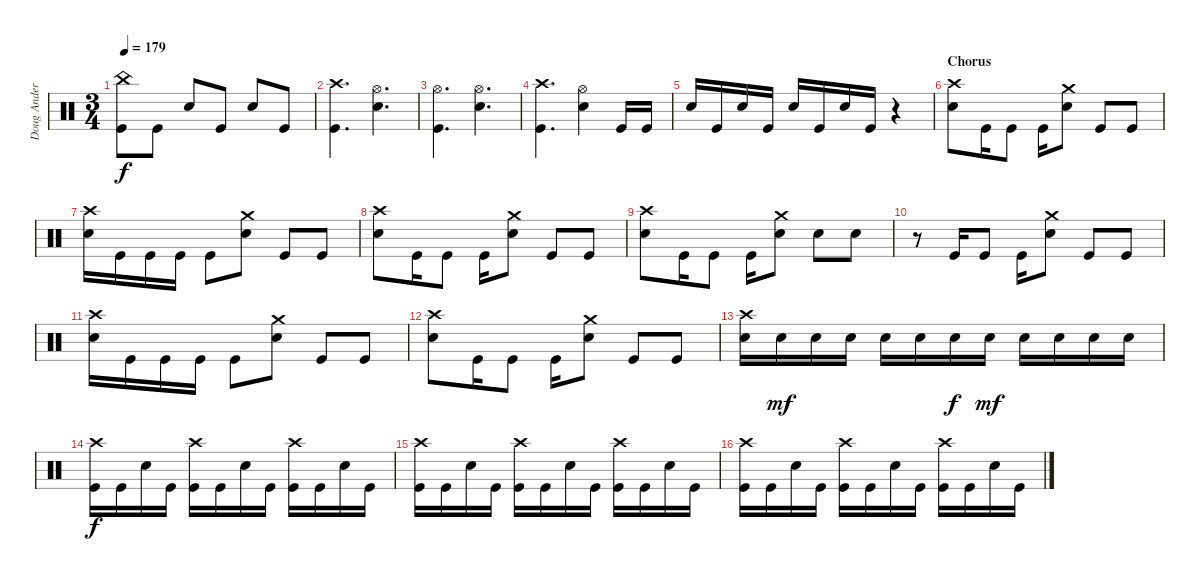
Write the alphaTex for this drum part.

\track ("Doug Anderson" "Doug Ander") {instrument percussion}
\staff {score}
\articulation defaults
\ts (3 4)
\tempo 179
\clef neutral
\ks c
("Kick (hit)" "China (hit)").8{dy f} "Kick (hit)".8 "Snare (hit) 2".8 "Kick (hit)".8 "Snare (hit) 2".8 "Kick (hit)".8 |
("Kick (hit)" "Crash high (hit)").4{d} ("Snare (hit) 2" "Hi-Hat (open)").4{d} |
("Kick (hit)" "Hi-Hat (open)").4{d} ("Snare (hit) 2" "Hi-Hat (open)").4{d} |
("Kick (hit)" "Crash high (hit)").4{d} ("Snare (hit) 2" "Hi-Hat (open)").4 "Kick (hit)".16 "Kick (hit)".16 |
"Snare (hit) 2".16 "Kick (hit)".16 "Snare (hit) 2".16 "Kick (hit)".16 "Snare (hit) 2".16 "Kick (hit)".16 "Snare (hit) 2".16 "Kick (hit)".16 r.4 |
\section ("" "Chorus")
("Snare (hit) 2" "Crash high (hit)").8 "Kick (hit)".16 "Kick (hit)".8 "Kick (hit)".16 ("Snare (hit) 2" "Crash medium (hit)").8 "Kick (hit)".8 "Kick (hit)".8 |
("Snare (hit) 2" "Crash high (hit)").16 "Kick (hit)".16 "Kick (hit)".16 "Kick (hit)".16 "Kick (hit)".8 ("Snare (hit) 2" "Crash medium (hit)").8 "Kick (hit)".8 "Kick (hit)".8 |
("Snare (hit) 2" "Crash high (hit)").8 "Kick (hit)".16 "Kick (hit)".8 "Kick (hit)".16 ("Snare (hit) 2" "Crash medium (hit)").8 "Kick (hit)".8 "Kick (hit)".8 |
("Snare (hit) 2" "Crash high (hit)").8 "Kick (hit)".16 "Kick (hit)".8 "Kick (hit)".16 ("Snare (hit) 2" "Crash medium (hit)").8 "Snare (hit) 2".8 "Snare (hit) 2".8 |
r.8 "Kick (hit)".16 "Kick (hit)".8 "Kick (hit)".16 ("Snare (hit) 2" "Crash medium (hit)").8 "Kick (hit)".8 "Kick (hit)".8 |
("Snare (hit) 2" "Crash high (hit)").16 "Kick (hit)".16 "Kick (hit)".16 "Kick (hit)".16 "Kick (hit)".8 ("Snare (hit) 2" "Crash medium (hit)").8 "Kick (hit)".8 "Kick (hit)".8 |
("Snare (hit) 2" "Crash high (hit)").8 "Kick (hit)".16 "Kick (hit)".8 "Kick (hit)".16 ("Snare (hit) 2" "Crash medium (hit)").8 "Kick (hit)".8 "Kick (hit)".8 |
("Crash high (hit)" "Snare (hit) 2").16 "Snare (hit) 2".16{dy mf} "Snare (hit) 2".16 "Snare (hit) 2".16 "Snare (hit) 2".16 "Snare (hit) 2".16 "Snare (hit) 2".16{dy f} "Snare (hit) 2".16{dy mf} "Snare (hit) 2".16 "Snare (hit) 2".16 "Snare (hit) 2".16 "Snare (hit) 2".16 |
("Kick (hit)" "Crash high (hit)").16{dy f} "Kick (hit)".16 "Snare (hit) 2".16 "Kick (hit)".16 ("Kick (hit)" "Crash high (hit)").16 "Kick (hit)".16 "Snare (hit) 2".16 "Kick (hit)".16 ("Kick (hit)" "Crash high (hit)").16 "Kick (hit)".16 "Snare (hit) 2".16 "Kick (hit)".16 |
("Kick (hit)" "Crash high (hit)").16 "Kick (hit)".16 "Snare (hit) 2".16 "Kick (hit)".16 ("Kick (hit)" "Crash high (hit)").16 "Kick (hit)".16 "Snare (hit) 2".16 "Kick (hit)".16 ("Kick (hit)" "Crash high (hit)").16 "Kick (hit)".16 "Snare (hit) 2".16 "Kick (hit)".16 |
("Kick (hit)" "Crash high (hit)").16 "Kick (hit)".16 "Snare (hit) 2".16 "Kick (hit)".16 ("Kick (hit)" "Crash high (hit)").16 "Kick (hit)".16 "Snare (hit) 2".16 "Kick (hit)".16 ("Kick (hit)" "Crash high (hit)").16 "Kick (hit)".16 "Snare (hit) 2".16 "Kick (hit)".16
